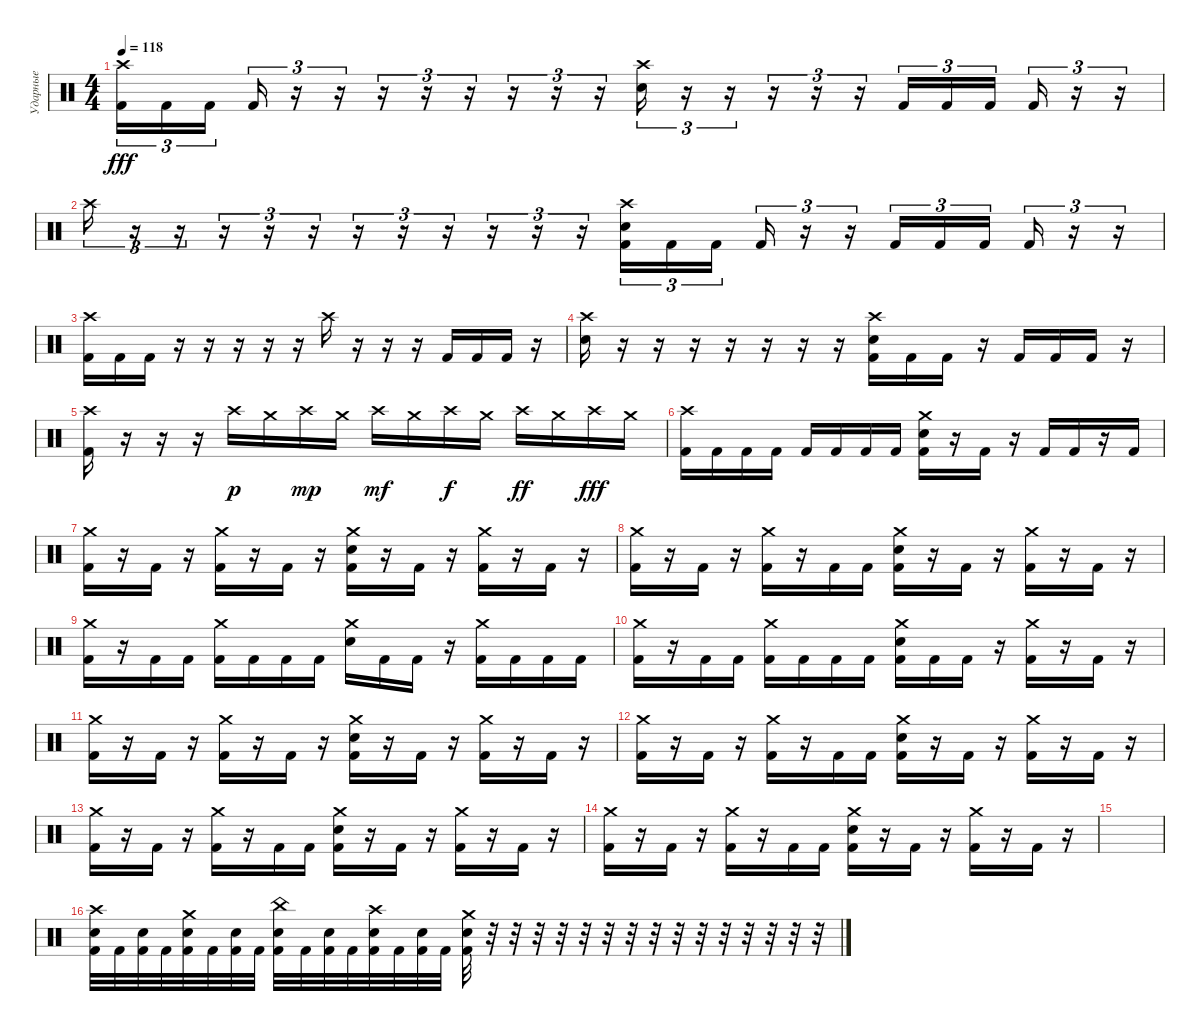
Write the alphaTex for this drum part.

\track ("Ударные" "Ударные") {instrument percussion}
\staff {score}
\articulation defaults
\ts (4 4)
\tempo 118
\clef neutral
\ks c
("Crash high (hit)" "Kick (hit) 2").16{tu (3 2) dy fff} "Kick (hit) 2".16{tu (3 2)} "Kick (hit) 2".16{tu (3 2) beam splitsecondary} "Kick (hit) 2".16{tu (3 2)} r.16{tu (3 2)} r.16{tu (3 2)} r.16{tu (3 2)} r.16{tu (3 2)} r.16{tu (3 2)} r.16{tu (3 2)} r.16{tu (3 2)} r.16{tu (3 2)} ("Crash high (hit)" "Electric Snare (hit)").16{tu (3 2)} r.16{tu (3 2)} r.16{tu (3 2)} r.16{tu (3 2)} r.16{tu (3 2)} r.16{tu (3 2)} "Kick (hit) 2".16{tu (3 2)} "Kick (hit) 2".16{tu (3 2)} "Kick (hit) 2".16{tu (3 2) beam splitsecondary} "Kick (hit) 2".16{tu (3 2)} r.16{tu (3 2)} r.16{tu (3 2)} |
"Crash high (hit)".16{tu (3 2)} r.16{tu (3 2)} r.16{tu (3 2)} r.16{tu (3 2)} r.16{tu (3 2)} r.16{tu (3 2)} r.16{tu (3 2)} r.16{tu (3 2)} r.16{tu (3 2)} r.16{tu (3 2)} r.16{tu (3 2)} r.16{tu (3 2)} ("Crash high (hit)" "Electric Snare (hit)" "Kick (hit) 2").16{tu (3 2)} "Kick (hit) 2".16{tu (3 2)} "Kick (hit) 2".16{tu (3 2) beam splitsecondary} "Kick (hit) 2".16{tu (3 2)} r.16{tu (3 2)} r.16{tu (3 2)} "Kick (hit) 2".16{tu (3 2)} "Kick (hit) 2".16{tu (3 2)} "Kick (hit) 2".16{tu (3 2) beam splitsecondary} "Kick (hit) 2".16{tu (3 2)} r.16{tu (3 2)} r.16{tu (3 2)} |
("Crash high (hit)" "Kick (hit) 2").16 "Kick (hit) 2".16 "Kick (hit) 2".16 r.16 r.16 r.16 r.16 r.16 "Crash high (hit)".16 r.16 r.16 r.16 "Kick (hit) 2".16 "Kick (hit) 2".16 "Kick (hit) 2".16 r.16 |
("Crash high (hit)" "Electric Snare (hit)").16 r.16 r.16 r.16 r.16 r.16 r.16 r.16 ("Crash high (hit)" "Electric Snare (hit)" "Kick (hit) 2").16 "Kick (hit) 2".16 "Kick (hit) 2".16 r.16 "Kick (hit) 2".16 "Kick (hit) 2".16 "Kick (hit) 2".16 r.16 |
("Crash high (hit)" "Kick (hit) 2").16 r.16 r.16 r.16 "Crash high (hit)".16{dy p} "Crash medium (hit)".16 "Crash high (hit)".16{dy mp} "Crash medium (hit)".16 "Crash high (hit)".16{dy mf} "Crash medium (hit)".16 "Crash high (hit)".16{dy f} "Crash medium (hit)".16 "Crash high (hit)".16{dy ff} "Crash medium (hit)".16 "Crash high (hit)".16{dy fff} "Crash medium (hit)".16 |
("Crash high (hit)" "Kick (hit) 2").16 "Kick (hit) 2".16 "Kick (hit) 2".16 "Kick (hit) 2".16 "Kick (hit) 2".16 "Kick (hit) 2".16 "Kick (hit) 2".16 "Kick (hit) 2".16 ("Crash medium (hit)" "Electric Snare (hit)" "Kick (hit) 2").16 r.16 "Kick (hit) 2".16 r.16 "Kick (hit) 2".16 "Kick (hit) 2".16 r.16 "Kick (hit) 2".16 |
("Crash medium (hit)" "Kick (hit) 2").16 r.16 "Kick (hit) 2".16 r.16 ("Crash medium (hit)" "Kick (hit) 2").16 r.16 "Kick (hit) 2".16 r.16 ("Crash medium (hit)" "Electric Snare (hit)" "Kick (hit) 2").16 r.16 "Kick (hit) 2".16 r.16 ("Crash medium (hit)" "Kick (hit) 2").16 r.16 "Kick (hit) 2".16 r.16 |
("Crash medium (hit)" "Kick (hit) 2").16 r.16 "Kick (hit) 2".16 r.16 ("Crash medium (hit)" "Kick (hit) 2").16 r.16 "Kick (hit) 2".16 "Kick (hit) 2".16 ("Crash medium (hit)" "Electric Snare (hit)" "Kick (hit) 2").16 r.16 "Kick (hit) 2".16 r.16 ("Crash medium (hit)" "Kick (hit) 2").16 r.16 "Kick (hit) 2".16 r.16 |
("Crash medium (hit)" "Kick (hit) 2").16 r.16 "Kick (hit) 2".16 "Kick (hit) 2".16 ("Crash medium (hit)" "Kick (hit) 2").16 "Kick (hit) 2".16 "Kick (hit) 2".16 "Kick (hit) 2".16 ("Crash medium (hit)" "Electric Snare (hit)").16 "Kick (hit) 2".16 "Kick (hit) 2".16 r.16 ("Crash medium (hit)" "Kick (hit) 2").16 "Kick (hit) 2".16 "Kick (hit) 2".16 "Kick (hit) 2".16 |
("Crash medium (hit)" "Kick (hit) 2").16 r.16 "Kick (hit) 2".16 "Kick (hit) 2".16 ("Crash medium (hit)" "Kick (hit) 2").16 "Kick (hit) 2".16 "Kick (hit) 2".16 "Kick (hit) 2".16 ("Crash medium (hit)" "Electric Snare (hit)" "Kick (hit) 2").16 "Kick (hit) 2".16 "Kick (hit) 2".16 r.16 ("Crash medium (hit)" "Kick (hit) 2").16 r.16 "Kick (hit) 2".16 r.16 |
("Crash medium (hit)" "Kick (hit) 2").16 r.16 "Kick (hit) 2".16 r.16 ("Crash medium (hit)" "Kick (hit) 2").16 r.16 "Kick (hit) 2".16 r.16 ("Crash medium (hit)" "Electric Snare (hit)" "Kick (hit) 2").16 r.16 "Kick (hit) 2".16 r.16 ("Crash medium (hit)" "Kick (hit) 2").16 r.16 "Kick (hit) 2".16 r.16 |
("Crash medium (hit)" "Kick (hit) 2").16 r.16 "Kick (hit) 2".16 r.16 ("Crash medium (hit)" "Kick (hit) 2").16 r.16 "Kick (hit) 2".16 "Kick (hit) 2".16 ("Crash medium (hit)" "Electric Snare (hit)" "Kick (hit) 2").16 r.16 "Kick (hit) 2".16 r.16 ("Crash medium (hit)" "Kick (hit) 2").16 r.16 "Kick (hit) 2".16 r.16 |
("Crash medium (hit)" "Kick (hit) 2").16 r.16 "Kick (hit) 2".16 r.16 ("Crash medium (hit)" "Kick (hit) 2").16 r.16 "Kick (hit) 2".16 "Kick (hit) 2".16 ("Crash medium (hit)" "Electric Snare (hit)" "Kick (hit) 2").16 r.16 "Kick (hit) 2".16 r.16 ("Crash medium (hit)" "Kick (hit) 2").16 r.16 "Kick (hit) 2".16 r.16 |
("Crash medium (hit)" "Kick (hit) 2").16 r.16 "Kick (hit) 2".16 r.16 ("Crash medium (hit)" "Kick (hit) 2").16 r.16 "Kick (hit) 2".16 "Kick (hit) 2".16 ("Crash medium (hit)" "Electric Snare (hit)" "Kick (hit) 2").16 r.16 "Kick (hit) 2".16 r.16 ("Crash medium (hit)" "Kick (hit) 2").16 r.16 "Kick (hit) 2".16 r.16 |
|
("Crash high (hit)" "Electric Snare (hit)" "Kick (hit) 2").32 "Kick (hit) 2".32 ("Electric Snare (hit)" "Kick (hit) 2").32 "Kick (hit) 2".32 ("Crash medium (hit)" "Electric Snare (hit)" "Kick (hit) 2").32 "Kick (hit) 2".32 ("Electric Snare (hit)" "Kick (hit) 2").32 "Kick (hit) 2".32 ("China (hit)" "Electric Snare (hit)" "Kick (hit) 2").32 "Kick (hit) 2".32 ("Electric Snare (hit)" "Kick (hit) 2").32 "Kick (hit) 2".32 ("Crash high (hit)" "Electric Snare (hit)" "Kick (hit) 2").32 "Kick (hit) 2".32 ("Electric Snare (hit)" "Kick (hit) 2").32 "Kick (hit) 2".32 ("Crash medium (hit)" "Electric Snare (hit)" "Kick (hit) 2").32 r.32 r.32 r.32 r.32 r.32 r.32 r.32 r.32 r.32 r.32 r.32 r.32 r.32 r.32 r.32
